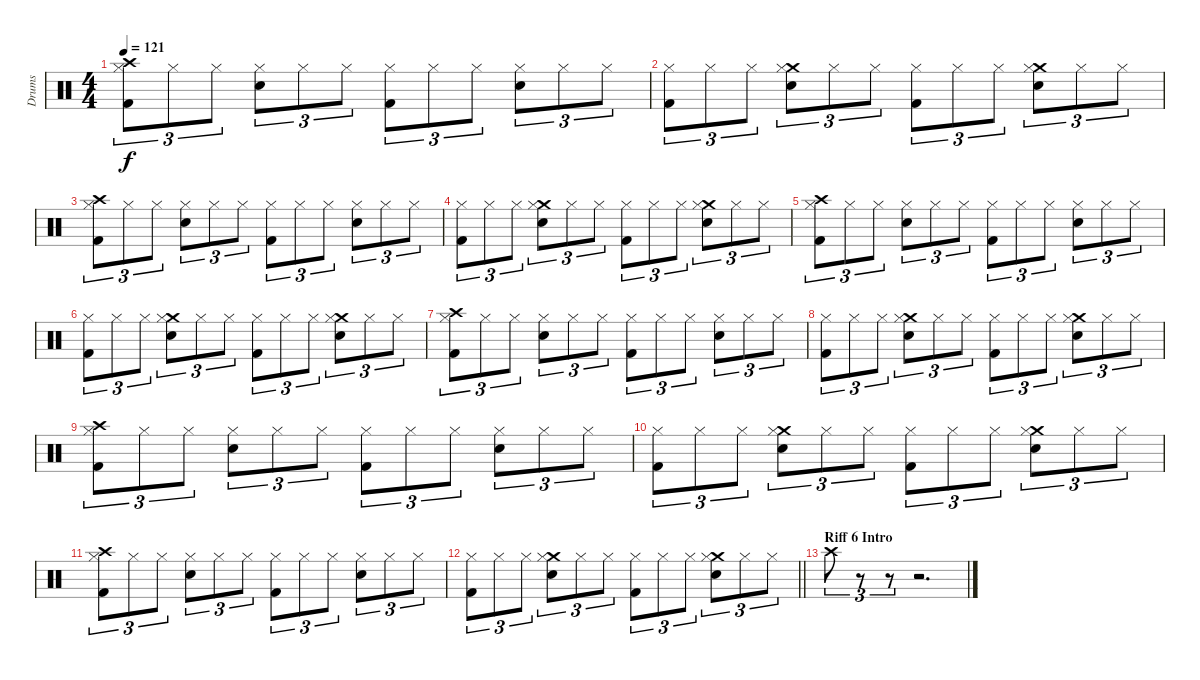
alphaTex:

\track ("Drums" "Drums") {instrument percussion}
\staff {score}
\articulation defaults
\ts (4 4)
\tempo 121
\clef neutral
\ks c
("Crash high (hit)" "Kick (hit) 2" "Hi-Hat (closed)").8{tu (3 2) dy f} "Hi-Hat (closed)".8{tu (3 2)} "Hi-Hat (closed)".8{tu (3 2)} ("Snare (hit) 2" "Hi-Hat (closed)").8{tu (3 2)} "Hi-Hat (closed)".8{tu (3 2)} "Hi-Hat (closed)".8{tu (3 2)} ("Kick (hit) 2" "Hi-Hat (closed)").8{tu (3 2)} "Hi-Hat (closed)".8{tu (3 2)} "Hi-Hat (closed)".8{tu (3 2)} ("Snare (hit) 2" "Hi-Hat (closed)").8{tu (3 2)} "Hi-Hat (closed)".8{tu (3 2)} "Hi-Hat (closed)".8{tu (3 2)} |
("Kick (hit) 2" "Hi-Hat (closed)").8{tu (3 2)} "Hi-Hat (closed)".8{tu (3 2)} "Hi-Hat (closed)".8{tu (3 2)} ("Crash medium (hit)" "Snare (hit) 2" "Hi-Hat (closed)").8{tu (3 2)} "Hi-Hat (closed)".8{tu (3 2)} "Hi-Hat (closed)".8{tu (3 2)} ("Kick (hit) 2" "Hi-Hat (closed)").8{tu (3 2)} "Hi-Hat (closed)".8{tu (3 2)} "Hi-Hat (closed)".8{tu (3 2)} ("Crash medium (hit)" "Snare (hit) 2" "Hi-Hat (closed)").8{tu (3 2)} "Hi-Hat (closed)".8{tu (3 2)} "Hi-Hat (closed)".8{tu (3 2)} |
("Crash high (hit)" "Kick (hit) 2" "Hi-Hat (closed)").8{tu (3 2)} "Hi-Hat (closed)".8{tu (3 2)} "Hi-Hat (closed)".8{tu (3 2)} ("Snare (hit) 2" "Hi-Hat (closed)").8{tu (3 2)} "Hi-Hat (closed)".8{tu (3 2)} "Hi-Hat (closed)".8{tu (3 2)} ("Kick (hit) 2" "Hi-Hat (closed)").8{tu (3 2)} "Hi-Hat (closed)".8{tu (3 2)} "Hi-Hat (closed)".8{tu (3 2)} ("Snare (hit) 2" "Hi-Hat (closed)").8{tu (3 2)} "Hi-Hat (closed)".8{tu (3 2)} "Hi-Hat (closed)".8{tu (3 2)} |
("Kick (hit) 2" "Hi-Hat (closed)").8{tu (3 2)} "Hi-Hat (closed)".8{tu (3 2)} "Hi-Hat (closed)".8{tu (3 2)} ("Crash medium (hit)" "Snare (hit) 2" "Hi-Hat (closed)").8{tu (3 2)} "Hi-Hat (closed)".8{tu (3 2)} "Hi-Hat (closed)".8{tu (3 2)} ("Kick (hit) 2" "Hi-Hat (closed)").8{tu (3 2)} "Hi-Hat (closed)".8{tu (3 2)} "Hi-Hat (closed)".8{tu (3 2)} ("Crash medium (hit)" "Snare (hit) 2" "Hi-Hat (closed)").8{tu (3 2)} "Hi-Hat (closed)".8{tu (3 2)} "Hi-Hat (closed)".8{tu (3 2)} |
("Crash high (hit)" "Kick (hit) 2" "Hi-Hat (closed)").8{tu (3 2)} "Hi-Hat (closed)".8{tu (3 2)} "Hi-Hat (closed)".8{tu (3 2)} ("Snare (hit) 2" "Hi-Hat (closed)").8{tu (3 2)} "Hi-Hat (closed)".8{tu (3 2)} "Hi-Hat (closed)".8{tu (3 2)} ("Kick (hit) 2" "Hi-Hat (closed)").8{tu (3 2)} "Hi-Hat (closed)".8{tu (3 2)} "Hi-Hat (closed)".8{tu (3 2)} ("Snare (hit) 2" "Hi-Hat (closed)").8{tu (3 2)} "Hi-Hat (closed)".8{tu (3 2)} "Hi-Hat (closed)".8{tu (3 2)} |
("Kick (hit) 2" "Hi-Hat (closed)").8{tu (3 2)} "Hi-Hat (closed)".8{tu (3 2)} "Hi-Hat (closed)".8{tu (3 2)} ("Crash medium (hit)" "Snare (hit) 2" "Hi-Hat (closed)").8{tu (3 2)} "Hi-Hat (closed)".8{tu (3 2)} "Hi-Hat (closed)".8{tu (3 2)} ("Kick (hit) 2" "Hi-Hat (closed)").8{tu (3 2)} "Hi-Hat (closed)".8{tu (3 2)} "Hi-Hat (closed)".8{tu (3 2)} ("Crash medium (hit)" "Snare (hit) 2" "Hi-Hat (closed)").8{tu (3 2)} "Hi-Hat (closed)".8{tu (3 2)} "Hi-Hat (closed)".8{tu (3 2)} |
("Crash high (hit)" "Kick (hit) 2" "Hi-Hat (closed)").8{tu (3 2)} "Hi-Hat (closed)".8{tu (3 2)} "Hi-Hat (closed)".8{tu (3 2)} ("Snare (hit) 2" "Hi-Hat (closed)").8{tu (3 2)} "Hi-Hat (closed)".8{tu (3 2)} "Hi-Hat (closed)".8{tu (3 2)} ("Kick (hit) 2" "Hi-Hat (closed)").8{tu (3 2)} "Hi-Hat (closed)".8{tu (3 2)} "Hi-Hat (closed)".8{tu (3 2)} ("Snare (hit) 2" "Hi-Hat (closed)").8{tu (3 2)} "Hi-Hat (closed)".8{tu (3 2)} "Hi-Hat (closed)".8{tu (3 2)} |
("Kick (hit) 2" "Hi-Hat (closed)").8{tu (3 2)} "Hi-Hat (closed)".8{tu (3 2)} "Hi-Hat (closed)".8{tu (3 2)} ("Crash medium (hit)" "Snare (hit) 2" "Hi-Hat (closed)").8{tu (3 2)} "Hi-Hat (closed)".8{tu (3 2)} "Hi-Hat (closed)".8{tu (3 2)} ("Kick (hit) 2" "Hi-Hat (closed)").8{tu (3 2)} "Hi-Hat (closed)".8{tu (3 2)} "Hi-Hat (closed)".8{tu (3 2)} ("Crash medium (hit)" "Snare (hit) 2" "Hi-Hat (closed)").8{tu (3 2)} "Hi-Hat (closed)".8{tu (3 2)} "Hi-Hat (closed)".8{tu (3 2)} |
("Crash high (hit)" "Kick (hit) 2" "Hi-Hat (closed)").8{tu (3 2)} "Hi-Hat (closed)".8{tu (3 2)} "Hi-Hat (closed)".8{tu (3 2)} ("Snare (hit) 2" "Hi-Hat (closed)").8{tu (3 2)} "Hi-Hat (closed)".8{tu (3 2)} "Hi-Hat (closed)".8{tu (3 2)} ("Kick (hit) 2" "Hi-Hat (closed)").8{tu (3 2)} "Hi-Hat (closed)".8{tu (3 2)} "Hi-Hat (closed)".8{tu (3 2)} ("Snare (hit) 2" "Hi-Hat (closed)").8{tu (3 2)} "Hi-Hat (closed)".8{tu (3 2)} "Hi-Hat (closed)".8{tu (3 2)} |
("Kick (hit) 2" "Hi-Hat (closed)").8{tu (3 2)} "Hi-Hat (closed)".8{tu (3 2)} "Hi-Hat (closed)".8{tu (3 2)} ("Crash medium (hit)" "Snare (hit) 2" "Hi-Hat (closed)").8{tu (3 2)} "Hi-Hat (closed)".8{tu (3 2)} "Hi-Hat (closed)".8{tu (3 2)} ("Kick (hit) 2" "Hi-Hat (closed)").8{tu (3 2)} "Hi-Hat (closed)".8{tu (3 2)} "Hi-Hat (closed)".8{tu (3 2)} ("Crash medium (hit)" "Snare (hit) 2" "Hi-Hat (closed)").8{tu (3 2)} "Hi-Hat (closed)".8{tu (3 2)} "Hi-Hat (closed)".8{tu (3 2)} |
("Crash high (hit)" "Kick (hit) 2" "Hi-Hat (closed)").8{tu (3 2)} "Hi-Hat (closed)".8{tu (3 2)} "Hi-Hat (closed)".8{tu (3 2)} ("Snare (hit) 2" "Hi-Hat (closed)").8{tu (3 2)} "Hi-Hat (closed)".8{tu (3 2)} "Hi-Hat (closed)".8{tu (3 2)} ("Kick (hit) 2" "Hi-Hat (closed)").8{tu (3 2)} "Hi-Hat (closed)".8{tu (3 2)} "Hi-Hat (closed)".8{tu (3 2)} ("Snare (hit) 2" "Hi-Hat (closed)").8{tu (3 2)} "Hi-Hat (closed)".8{tu (3 2)} "Hi-Hat (closed)".8{tu (3 2)} |
\barLineRight lightlight
("Kick (hit) 2" "Hi-Hat (closed)").8{tu (3 2)} "Hi-Hat (closed)".8{tu (3 2)} "Hi-Hat (closed)".8{tu (3 2)} ("Crash medium (hit)" "Snare (hit) 2" "Hi-Hat (closed)").8{tu (3 2)} "Hi-Hat (closed)".8{tu (3 2)} "Hi-Hat (closed)".8{tu (3 2)} ("Kick (hit) 2" "Hi-Hat (closed)").8{tu (3 2)} "Hi-Hat (closed)".8{tu (3 2)} "Hi-Hat (closed)".8{tu (3 2)} ("Crash medium (hit)" "Snare (hit) 2" "Hi-Hat (closed)").8{tu (3 2)} "Hi-Hat (closed)".8{tu (3 2)} "Hi-Hat (closed)".8{tu (3 2)} |
\section ("" "Riff 6 Intro")
"Crash high (hit)".8{tu (3 2)} r.8{tu (3 2)} r.8{tu (3 2)} r.2{d}
